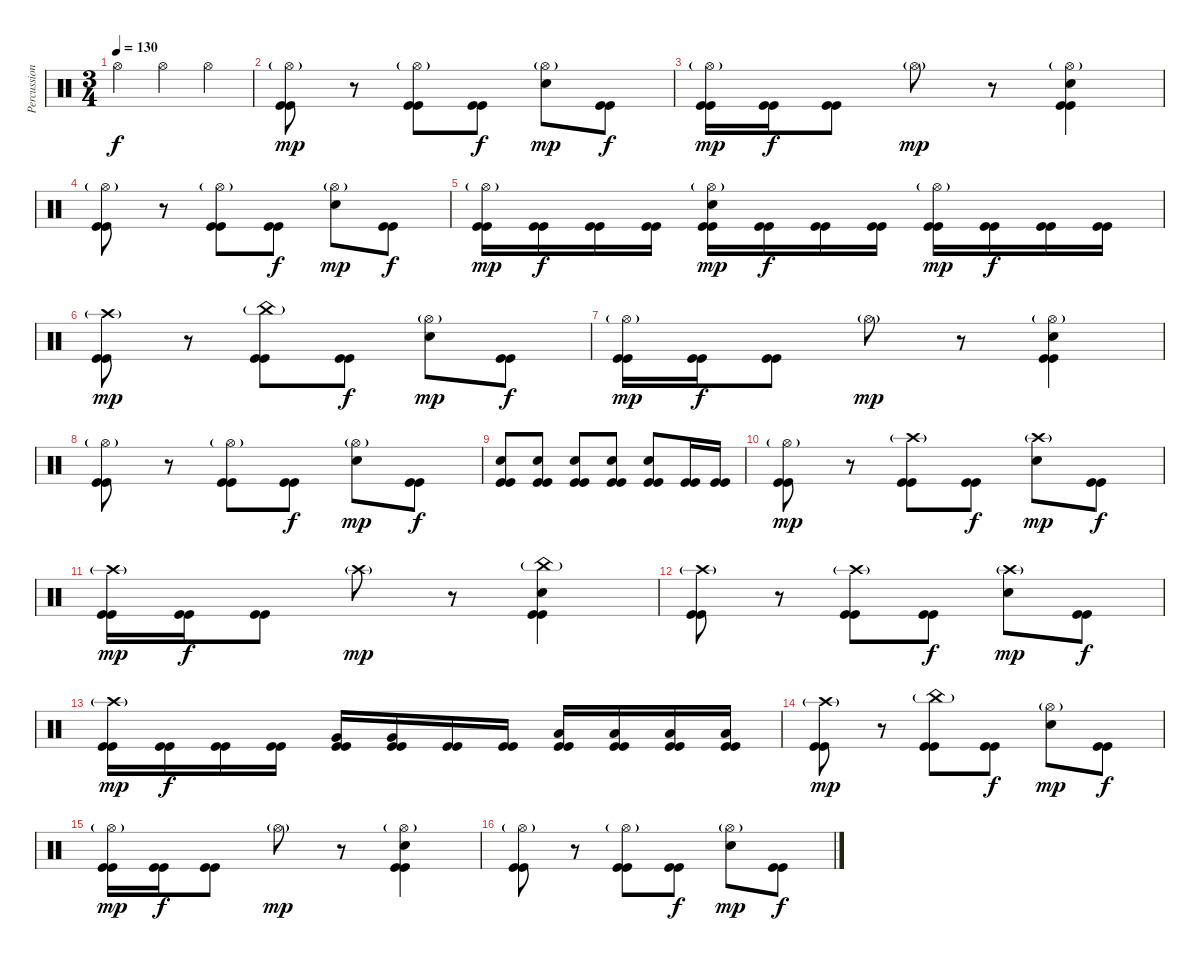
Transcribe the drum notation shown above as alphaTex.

\track ("Percussions" "Percussion") {instrument percussion}
\staff {score}
\articulation defaults
\ts (3 4)
\tempo 130
\clef neutral
\ks c "Hi-Hat (open)".4{dy f} "Hi-Hat (open)".4 "Hi-Hat (open)".4
|
("Hi-Hat (open)"{g} "Kick (hit)" "Kick (hit)").8{dy mp} r.8 ("Hi-Hat (open)"{g} "Kick (hit)" "Kick (hit)").8 ("Kick (hit)" "Kick (hit)").8{dy f} ("Hi-Hat (open)"{g} "Electric Snare (hit)").8{dy mp} ("Kick (hit)" "Kick (hit)").8{dy f} |
("Hi-Hat (open)"{g} "Kick (hit)" "Kick (hit)").16{dy mp} ("Kick (hit)" "Kick (hit)").16{dy f} ("Kick (hit)" "Kick (hit)").8 "Hi-Hat (open)"{g}.8{dy mp} r.8 ("Hi-Hat (open)"{g} "Electric Snare (hit)" "Kick (hit)" "Kick (hit)").4 |
("Hi-Hat (open)"{g} "Kick (hit)" "Kick (hit)").8 r.8 ("Hi-Hat (open)"{g} "Kick (hit)" "Kick (hit)").8 ("Kick (hit)" "Kick (hit)").8{dy f} ("Hi-Hat (open)"{g} "Electric Snare (hit)").8{dy mp} ("Kick (hit)" "Kick (hit)").8{dy f} |
("Hi-Hat (open)"{g} "Kick (hit)" "Kick (hit)").16{dy mp} ("Kick (hit)" "Kick (hit)").16{dy f} ("Kick (hit)" "Kick (hit)").16 ("Kick (hit)" "Kick (hit)").16 ("Hi-Hat (open)"{g} "Electric Snare (hit)" "Kick (hit)" "Kick (hit)").16{dy mp} ("Kick (hit)" "Kick (hit)").16{dy f} ("Kick (hit)" "Kick (hit)").16 ("Kick (hit)" "Kick (hit)").16 ("Hi-Hat (open)"{g} "Kick (hit)" "Kick (hit)").16{dy mp} ("Kick (hit)" "Kick (hit)").16{dy f} ("Kick (hit)" "Kick (hit)").16 ("Kick (hit)" "Kick (hit)").16 |
("Crash high (hit)"{g} "Kick (hit)" "Kick (hit)").8{dy mp} r.8 ("China (hit)"{g} "Kick (hit)" "Kick (hit)").8 ("Kick (hit)" "Kick (hit)").8{dy f} ("Hi-Hat (open)"{g} "Electric Snare (hit)").8{dy mp} ("Kick (hit)" "Kick (hit)").8{dy f} |
("Hi-Hat (open)"{g} "Kick (hit)" "Kick (hit)").16{dy mp} ("Kick (hit)" "Kick (hit)").16{dy f} ("Kick (hit)" "Kick (hit)").8 "Hi-Hat (open)"{g}.8{dy mp} r.8 ("Hi-Hat (open)"{g} "Electric Snare (hit)" "Kick (hit)" "Kick (hit)").4 |
("Hi-Hat (open)"{g} "Kick (hit)" "Kick (hit)").8 r.8 ("Hi-Hat (open)"{g} "Kick (hit)" "Kick (hit)").8 ("Kick (hit)" "Kick (hit)").8{dy f} ("Hi-Hat (open)"{g} "Electric Snare (hit)").8{dy mp} ("Kick (hit)" "Kick (hit)").8{dy f} |
("Electric Snare (hit)" "Kick (hit)" "Kick (hit)").8 ("Electric Snare (hit)" "Kick (hit)" "Kick (hit)").8 ("Electric Snare (hit)" "Kick (hit)" "Kick (hit)").8 ("Electric Snare (hit)" "Kick (hit)" "Kick (hit)").8 ("Electric Snare (hit)" "Kick (hit)" "Kick (hit)").8 ("Kick (hit)" "Kick (hit)").16 ("Kick (hit)" "Kick (hit)").16 |
("Hi-Hat (open)"{g} "Kick (hit)" "Kick (hit)").8{dy mp} r.8 ("Crash high (hit)"{g} "Kick (hit)" "Kick (hit)").8 ("Kick (hit)" "Kick (hit)").8{dy f} ("Crash high (hit)"{g} "Electric Snare (hit)").8{dy mp} ("Kick (hit)" "Kick (hit)").8{dy f} |
("Crash high (hit)"{g} "Kick (hit)" "Kick (hit)").16{dy mp} ("Kick (hit)" "Kick (hit)").16{dy f} ("Kick (hit)" "Kick (hit)").8 "Crash high (hit)"{g}.8{dy mp} r.8 ("China (hit)"{g} "Electric Snare (hit)" "Kick (hit)" "Kick (hit)").4 |
("Crash high (hit)"{g} "Kick (hit)" "Kick (hit)").8 r.8 ("Crash high (hit)"{g} "Kick (hit)" "Kick (hit)").8 ("Kick (hit)" "Kick (hit)").8{dy f} ("Crash high (hit)"{g} "Electric Snare (hit)").8{dy mp} ("Kick (hit)" "Kick (hit)").8{dy f} |
("Crash high (hit)"{g} "Kick (hit)" "Kick (hit)").16{dy mp} ("Kick (hit)" "Kick (hit)").16{dy f} ("Kick (hit)" "Kick (hit)").16 ("Kick (hit)" "Kick (hit)").16 ("Very Low Tom (hit)" "Kick (hit)" "Kick (hit)").16 ("Very Low Tom (hit)" "Kick (hit)" "Kick (hit)").16 ("Kick (hit)" "Kick (hit)").16 ("Kick (hit)" "Kick (hit)").16 ("Low Tom (hit)" "Kick (hit)" "Kick (hit)").16 ("Low Tom (hit)" "Kick (hit)" "Kick (hit)").16 ("Low Tom (hit)" "Kick (hit)" "Kick (hit)").16 ("Low Tom (hit)" "Kick (hit)" "Kick (hit)").16 |
("Crash high (hit)"{g} "Kick (hit)" "Kick (hit)").8{dy mp} r.8 ("China (hit)"{g} "Kick (hit)" "Kick (hit)").8 ("Kick (hit)" "Kick (hit)").8{dy f} ("Hi-Hat (open)"{g} "Electric Snare (hit)").8{dy mp} ("Kick (hit)" "Kick (hit)").8{dy f} |
("Hi-Hat (open)"{g} "Kick (hit)" "Kick (hit)").16{dy mp} ("Kick (hit)" "Kick (hit)").16{dy f} ("Kick (hit)" "Kick (hit)").8 "Hi-Hat (open)"{g}.8{dy mp} r.8 ("Hi-Hat (open)"{g} "Electric Snare (hit)" "Kick (hit)" "Kick (hit)").4 |
("Hi-Hat (open)"{g} "Kick (hit)" "Kick (hit)").8 r.8 ("Hi-Hat (open)"{g} "Kick (hit)" "Kick (hit)").8 ("Kick (hit)" "Kick (hit)").8{dy f} ("Hi-Hat (open)"{g} "Electric Snare (hit)").8{dy mp} ("Kick (hit)" "Kick (hit)").8{dy f}
